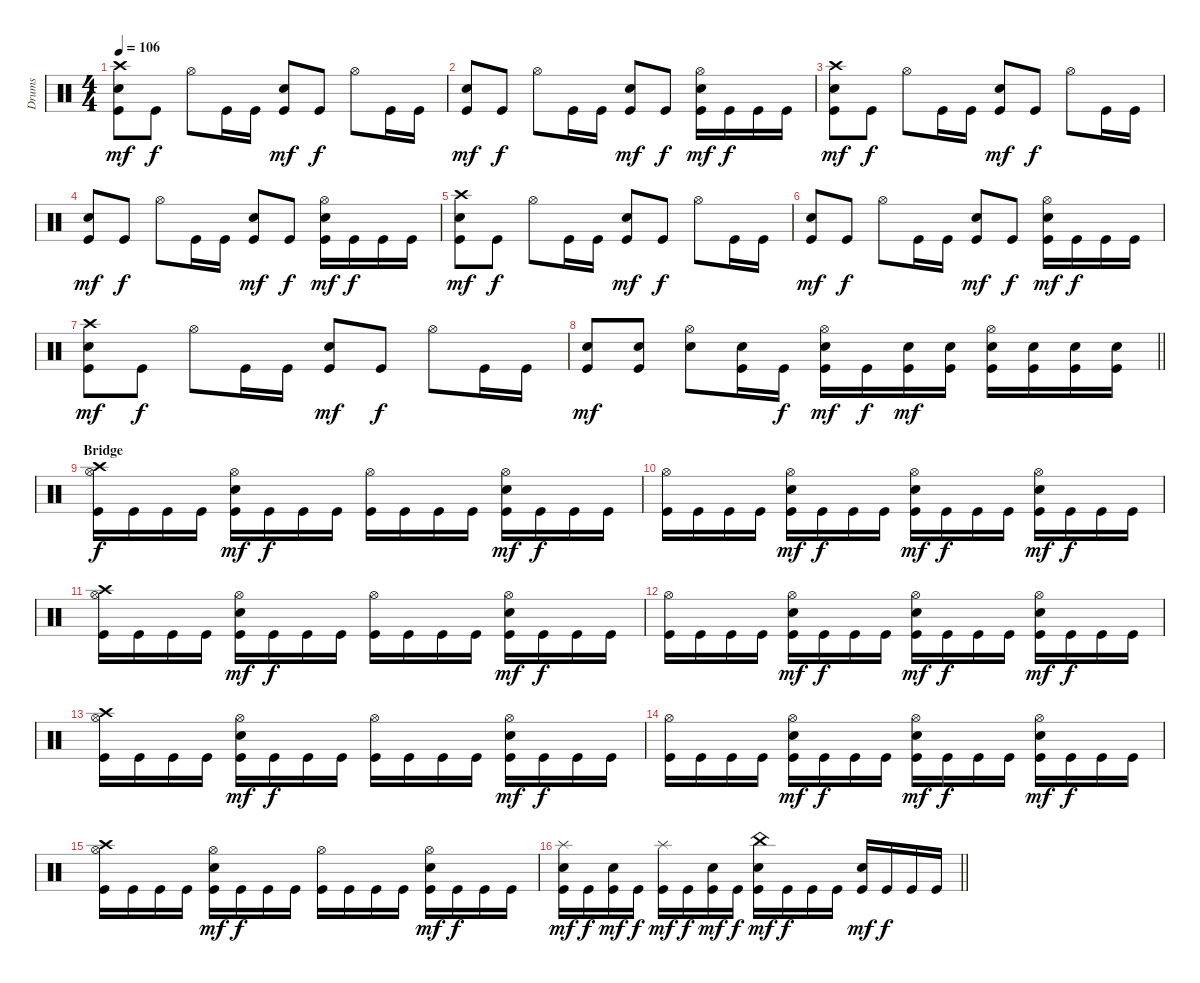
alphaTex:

\track ("Drums" "Drums") {instrument percussion}
\staff {score}
\articulation defaults
\ts (4 4)
\section ("" "")
\tempo 106
\clef neutral
\ks c
("Crash high (hit)" "Electric Snare (hit)" "Kick (hit)").8{dy mf} "Kick (hit)".8{dy f} "Hi-Hat (open)".8 "Kick (hit)".16 "Kick (hit)".16 ("Electric Snare (hit)" "Kick (hit)").8{dy mf} "Kick (hit)".8{dy f} "Hi-Hat (open)".8 "Kick (hit)".16 "Kick (hit)".16 |
("Electric Snare (hit)" "Kick (hit)").8{dy mf} "Kick (hit)".8{dy f} "Hi-Hat (open)".8 "Kick (hit)".16 "Kick (hit)".16 ("Electric Snare (hit)" "Kick (hit)").8{dy mf} "Kick (hit)".8{dy f} ("Hi-Hat (open)" "Electric Snare (hit)" "Kick (hit)").16{dy mf} "Kick (hit)".16{dy f} "Kick (hit)".16 "Kick (hit)".16 |
("Crash high (hit)" "Electric Snare (hit)" "Kick (hit)").8{dy mf} "Kick (hit)".8{dy f} "Hi-Hat (open)".8 "Kick (hit)".16 "Kick (hit)".16 ("Electric Snare (hit)" "Kick (hit)").8{dy mf} "Kick (hit)".8{dy f} "Hi-Hat (open)".8 "Kick (hit)".16 "Kick (hit)".16 |
("Electric Snare (hit)" "Kick (hit)").8{dy mf} "Kick (hit)".8{dy f} "Hi-Hat (open)".8 "Kick (hit)".16 "Kick (hit)".16 ("Electric Snare (hit)" "Kick (hit)").8{dy mf} "Kick (hit)".8{dy f} ("Hi-Hat (open)" "Electric Snare (hit)" "Kick (hit)").16{dy mf} "Kick (hit)".16{dy f} "Kick (hit)".16 "Kick (hit)".16 |
("Crash high (hit)" "Electric Snare (hit)" "Kick (hit)").8{dy mf} "Kick (hit)".8{dy f} "Hi-Hat (open)".8 "Kick (hit)".16 "Kick (hit)".16 ("Electric Snare (hit)" "Kick (hit)").8{dy mf} "Kick (hit)".8{dy f} "Hi-Hat (open)".8 "Kick (hit)".16 "Kick (hit)".16 |
("Electric Snare (hit)" "Kick (hit)").8{dy mf} "Kick (hit)".8{dy f} "Hi-Hat (open)".8 "Kick (hit)".16 "Kick (hit)".16 ("Electric Snare (hit)" "Kick (hit)").8{dy mf} "Kick (hit)".8{dy f} ("Hi-Hat (open)" "Electric Snare (hit)" "Kick (hit)").16{dy mf} "Kick (hit)".16{dy f} "Kick (hit)".16 "Kick (hit)".16 |
("Crash high (hit)" "Electric Snare (hit)" "Kick (hit)").8{dy mf} "Kick (hit)".8{dy f} "Hi-Hat (open)".8 "Kick (hit)".16 "Kick (hit)".16 ("Electric Snare (hit)" "Kick (hit)").8{dy mf} "Kick (hit)".8{dy f} "Hi-Hat (open)".8 "Kick (hit)".16 "Kick (hit)".16 |
\barLineRight lightlight
("Electric Snare (hit)" "Kick (hit)").8{dy mf} ("Electric Snare (hit)" "Kick (hit)").8 ("Hi-Hat (open)" "Electric Snare (hit)").8 ("Electric Snare (hit)" "Kick (hit)").16 "Kick (hit)".16{dy f} ("Hi-Hat (open)" "Electric Snare (hit)" "Kick (hit)").16{dy mf} "Kick (hit)".16{dy f} ("Electric Snare (hit)" "Kick (hit)").16{dy mf} ("Electric Snare (hit)" "Kick (hit)").16 ("Hi-Hat (open)" "Electric Snare (hit)" "Kick (hit)").16 ("Electric Snare (hit)" "Kick (hit)").16 ("Electric Snare (hit)" "Kick (hit)").16 ("Electric Snare (hit)" "Kick (hit)").16 |
\section ("" "Bridge")
("Crash high (hit)" "Hi-Hat (open)" "Kick (hit)").16{dy f} "Kick (hit)".16 "Kick (hit)".16 "Kick (hit)".16 ("Hi-Hat (open)" "Electric Snare (hit)" "Kick (hit)").16{dy mf} "Kick (hit)".16{dy f} "Kick (hit)".16 "Kick (hit)".16 ("Hi-Hat (open)" "Kick (hit)").16 "Kick (hit)".16 "Kick (hit)".16 "Kick (hit)".16 ("Hi-Hat (open)" "Electric Snare (hit)" "Kick (hit)").16{dy mf} "Kick (hit)".16{dy f} "Kick (hit)".16 "Kick (hit)".16 |
("Hi-Hat (open)" "Kick (hit)").16 "Kick (hit)".16 "Kick (hit)".16 "Kick (hit)".16 ("Hi-Hat (open)" "Electric Snare (hit)" "Kick (hit)").16{dy mf} "Kick (hit)".16{dy f} "Kick (hit)".16 "Kick (hit)".16 ("Hi-Hat (open)" "Electric Snare (hit)" "Kick (hit)").16{dy mf} "Kick (hit)".16{dy f} "Kick (hit)".16 "Kick (hit)".16 ("Hi-Hat (open)" "Electric Snare (hit)" "Kick (hit)").16{dy mf} "Kick (hit)".16{dy f} "Kick (hit)".16 "Kick (hit)".16 |
("Crash high (hit)" "Hi-Hat (open)" "Kick (hit)").16 "Kick (hit)".16 "Kick (hit)".16 "Kick (hit)".16 ("Hi-Hat (open)" "Electric Snare (hit)" "Kick (hit)").16{dy mf} "Kick (hit)".16{dy f} "Kick (hit)".16 "Kick (hit)".16 ("Hi-Hat (open)" "Kick (hit)").16 "Kick (hit)".16 "Kick (hit)".16 "Kick (hit)".16 ("Hi-Hat (open)" "Electric Snare (hit)" "Kick (hit)").16{dy mf} "Kick (hit)".16{dy f} "Kick (hit)".16 "Kick (hit)".16 |
("Hi-Hat (open)" "Kick (hit)").16 "Kick (hit)".16 "Kick (hit)".16 "Kick (hit)".16 ("Hi-Hat (open)" "Electric Snare (hit)" "Kick (hit)").16{dy mf} "Kick (hit)".16{dy f} "Kick (hit)".16 "Kick (hit)".16 ("Hi-Hat (open)" "Electric Snare (hit)" "Kick (hit)").16{dy mf} "Kick (hit)".16{dy f} "Kick (hit)".16 "Kick (hit)".16 ("Hi-Hat (open)" "Electric Snare (hit)" "Kick (hit)").16{dy mf} "Kick (hit)".16{dy f} "Kick (hit)".16 "Kick (hit)".16 |
("Crash high (hit)" "Hi-Hat (open)" "Kick (hit)").16 "Kick (hit)".16 "Kick (hit)".16 "Kick (hit)".16 ("Hi-Hat (open)" "Electric Snare (hit)" "Kick (hit)").16{dy mf} "Kick (hit)".16{dy f} "Kick (hit)".16 "Kick (hit)".16 ("Hi-Hat (open)" "Kick (hit)").16 "Kick (hit)".16 "Kick (hit)".16 "Kick (hit)".16 ("Hi-Hat (open)" "Electric Snare (hit)" "Kick (hit)").16{dy mf} "Kick (hit)".16{dy f} "Kick (hit)".16 "Kick (hit)".16 |
("Hi-Hat (open)" "Kick (hit)").16 "Kick (hit)".16 "Kick (hit)".16 "Kick (hit)".16 ("Hi-Hat (open)" "Electric Snare (hit)" "Kick (hit)").16{dy mf} "Kick (hit)".16{dy f} "Kick (hit)".16 "Kick (hit)".16 ("Hi-Hat (open)" "Electric Snare (hit)" "Kick (hit)").16{dy mf} "Kick (hit)".16{dy f} "Kick (hit)".16 "Kick (hit)".16 ("Hi-Hat (open)" "Electric Snare (hit)" "Kick (hit)").16{dy mf} "Kick (hit)".16{dy f} "Kick (hit)".16 "Kick (hit)".16 |
("Crash high (hit)" "Hi-Hat (open)" "Kick (hit)").16 "Kick (hit)".16 "Kick (hit)".16 "Kick (hit)".16 ("Hi-Hat (open)" "Electric Snare (hit)" "Kick (hit)").16{dy mf} "Kick (hit)".16{dy f} "Kick (hit)".16 "Kick (hit)".16 ("Hi-Hat (open)" "Kick (hit)").16 "Kick (hit)".16 "Kick (hit)".16 "Kick (hit)".16 ("Hi-Hat (open)" "Electric Snare (hit)" "Kick (hit)").16{dy mf} "Kick (hit)".16{dy f} "Kick (hit)".16 "Kick (hit)".16 |
\barLineRight lightlight
("Splash (hit)" "Electric Snare (hit)" "Kick (hit)").16{dy mf} "Kick (hit)".16{dy f} ("Electric Snare (hit)" "Kick (hit)").16{dy mf} "Kick (hit)".16{dy f} ("Splash (hit)" "Kick (hit)").16{dy mf} "Kick (hit)".16{dy f} ("Electric Snare (hit)" "Kick (hit)").16{dy mf} "Kick (hit)".16{dy f} ("China (hit)" "Electric Snare (hit)" "Kick (hit)").16{dy mf} "Kick (hit)".16{dy f} "Kick (hit)".16 "Kick (hit)".16 ("Electric Snare (hit)" "Kick (hit)").16{dy mf} "Kick (hit)".16{dy f} "Kick (hit)".16 "Kick (hit)".16
